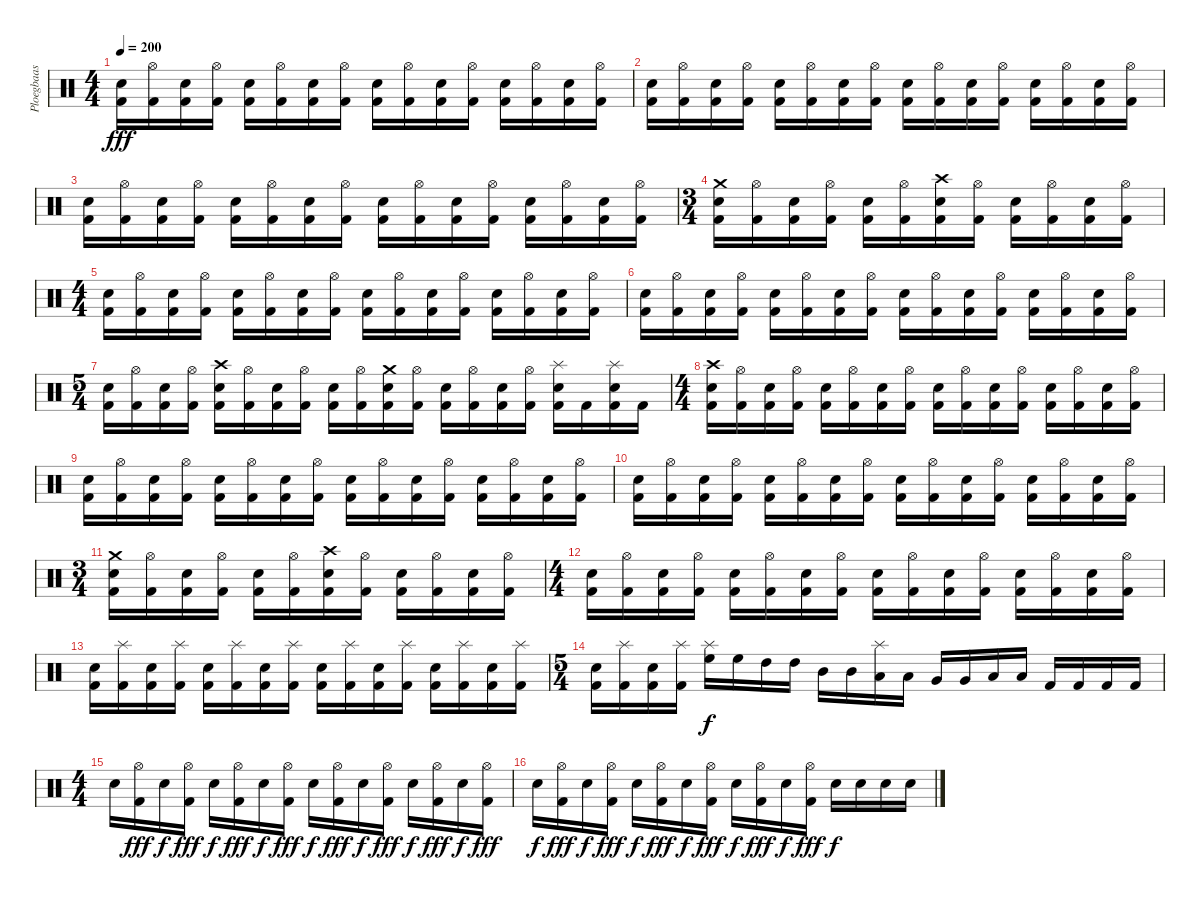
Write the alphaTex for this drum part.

\track ("Ploegbaas" "Ploegbaas") {instrument percussion}
\staff {score}
\articulation defaults
\ts (4 4)
\tempo 200
\clef neutral
\ks c
("Electric Snare (hit)" "Kick (hit) 2").16{dy fff} ("Hi-Hat (open)" "Kick (hit) 2").16 ("Electric Snare (hit)" "Kick (hit) 2").16 ("Hi-Hat (open)" "Kick (hit) 2").16 ("Electric Snare (hit)" "Kick (hit) 2").16 ("Hi-Hat (open)" "Kick (hit) 2").16 ("Electric Snare (hit)" "Kick (hit) 2").16 ("Hi-Hat (open)" "Kick (hit) 2").16 ("Electric Snare (hit)" "Kick (hit) 2").16 ("Hi-Hat (open)" "Kick (hit) 2").16 ("Electric Snare (hit)" "Kick (hit) 2").16 ("Hi-Hat (open)" "Kick (hit) 2").16 ("Electric Snare (hit)" "Kick (hit) 2").16 ("Hi-Hat (open)" "Kick (hit) 2").16 ("Electric Snare (hit)" "Kick (hit) 2").16 ("Hi-Hat (open)" "Kick (hit) 2").16 |
("Electric Snare (hit)" "Kick (hit) 2").16 ("Hi-Hat (open)" "Kick (hit) 2").16 ("Electric Snare (hit)" "Kick (hit) 2").16 ("Hi-Hat (open)" "Kick (hit) 2").16 ("Electric Snare (hit)" "Kick (hit) 2").16 ("Hi-Hat (open)" "Kick (hit) 2").16 ("Electric Snare (hit)" "Kick (hit) 2").16 ("Hi-Hat (open)" "Kick (hit) 2").16 ("Electric Snare (hit)" "Kick (hit) 2").16 ("Hi-Hat (open)" "Kick (hit) 2").16 ("Electric Snare (hit)" "Kick (hit) 2").16 ("Hi-Hat (open)" "Kick (hit) 2").16 ("Electric Snare (hit)" "Kick (hit) 2").16 ("Hi-Hat (open)" "Kick (hit) 2").16 ("Electric Snare (hit)" "Kick (hit) 2").16 ("Hi-Hat (open)" "Kick (hit) 2").16 |
("Electric Snare (hit)" "Kick (hit) 2").16 ("Hi-Hat (open)" "Kick (hit) 2").16 ("Electric Snare (hit)" "Kick (hit) 2").16 ("Hi-Hat (open)" "Kick (hit) 2").16 ("Electric Snare (hit)" "Kick (hit) 2").16 ("Hi-Hat (open)" "Kick (hit) 2").16 ("Electric Snare (hit)" "Kick (hit) 2").16 ("Hi-Hat (open)" "Kick (hit) 2").16 ("Electric Snare (hit)" "Kick (hit) 2").16 ("Hi-Hat (open)" "Kick (hit) 2").16 ("Electric Snare (hit)" "Kick (hit) 2").16 ("Hi-Hat (open)" "Kick (hit) 2").16 ("Electric Snare (hit)" "Kick (hit) 2").16 ("Hi-Hat (open)" "Kick (hit) 2").16 ("Electric Snare (hit)" "Kick (hit) 2").16 ("Hi-Hat (open)" "Kick (hit) 2").16 |
\ts (3 4)
("Crash medium (hit)" "Electric Snare (hit)" "Kick (hit) 2").16 ("Hi-Hat (open)" "Kick (hit) 2").16 ("Electric Snare (hit)" "Kick (hit) 2").16 ("Hi-Hat (open)" "Kick (hit) 2").16 ("Electric Snare (hit)" "Kick (hit) 2").16 ("Hi-Hat (open)" "Kick (hit) 2").16 ("Crash high (hit)" "Electric Snare (hit)" "Kick (hit) 2").16 ("Hi-Hat (open)" "Kick (hit) 2").16 ("Electric Snare (hit)" "Kick (hit) 2").16 ("Hi-Hat (open)" "Kick (hit) 2").16 ("Electric Snare (hit)" "Kick (hit) 2").16 ("Hi-Hat (open)" "Kick (hit) 2").16 |
\ts (4 4)
("Electric Snare (hit)" "Kick (hit) 2").16 ("Hi-Hat (open)" "Kick (hit) 2").16 ("Electric Snare (hit)" "Kick (hit) 2").16 ("Hi-Hat (open)" "Kick (hit) 2").16 ("Electric Snare (hit)" "Kick (hit) 2").16 ("Hi-Hat (open)" "Kick (hit) 2").16 ("Electric Snare (hit)" "Kick (hit) 2").16 ("Hi-Hat (open)" "Kick (hit) 2").16 ("Electric Snare (hit)" "Kick (hit) 2").16 ("Hi-Hat (open)" "Kick (hit) 2").16 ("Electric Snare (hit)" "Kick (hit) 2").16 ("Hi-Hat (open)" "Kick (hit) 2").16 ("Electric Snare (hit)" "Kick (hit) 2").16 ("Hi-Hat (open)" "Kick (hit) 2").16 ("Electric Snare (hit)" "Kick (hit) 2").16 ("Hi-Hat (open)" "Kick (hit) 2").16 |
("Electric Snare (hit)" "Kick (hit) 2").16 ("Hi-Hat (open)" "Kick (hit) 2").16 ("Electric Snare (hit)" "Kick (hit) 2").16 ("Hi-Hat (open)" "Kick (hit) 2").16 ("Electric Snare (hit)" "Kick (hit) 2").16 ("Hi-Hat (open)" "Kick (hit) 2").16 ("Electric Snare (hit)" "Kick (hit) 2").16 ("Hi-Hat (open)" "Kick (hit) 2").16 ("Electric Snare (hit)" "Kick (hit) 2").16 ("Hi-Hat (open)" "Kick (hit) 2").16 ("Electric Snare (hit)" "Kick (hit) 2").16 ("Hi-Hat (open)" "Kick (hit) 2").16 ("Electric Snare (hit)" "Kick (hit) 2").16 ("Hi-Hat (open)" "Kick (hit) 2").16 ("Electric Snare (hit)" "Kick (hit) 2").16 ("Hi-Hat (open)" "Kick (hit) 2").16 |
\ts (5 4)
("Electric Snare (hit)" "Kick (hit) 2").16 ("Hi-Hat (open)" "Kick (hit) 2").16 ("Electric Snare (hit)" "Kick (hit) 2").16 ("Hi-Hat (open)" "Kick (hit) 2").16 ("Crash high (hit)" "Electric Snare (hit)" "Kick (hit) 2").16 ("Hi-Hat (open)" "Kick (hit) 2").16 ("Electric Snare (hit)" "Kick (hit) 2").16 ("Hi-Hat (open)" "Kick (hit) 2").16 ("Electric Snare (hit)" "Kick (hit) 2").16 ("Hi-Hat (open)" "Kick (hit) 2").16 ("Crash medium (hit)" "Electric Snare (hit)" "Kick (hit) 2").16 ("Hi-Hat (open)" "Kick (hit) 2").16 ("Electric Snare (hit)" "Kick (hit) 2").16 ("Hi-Hat (open)" "Kick (hit) 2").16 ("Electric Snare (hit)" "Kick (hit) 2").16 ("Hi-Hat (open)" "Kick (hit) 2").16 ("Splash (hit)" "Electric Snare (hit)" "Kick (hit) 2").16 "Kick (hit) 2".16 ("Splash (hit)" "Electric Snare (hit)" "Kick (hit) 2").16 "Kick (hit) 2".16 |
\ts (4 4)
("Crash high (hit)" "Electric Snare (hit)" "Kick (hit) 2").16 ("Hi-Hat (open)" "Kick (hit) 2").16 ("Electric Snare (hit)" "Kick (hit) 2").16 ("Hi-Hat (open)" "Kick (hit) 2").16 ("Electric Snare (hit)" "Kick (hit) 2").16 ("Hi-Hat (open)" "Kick (hit) 2").16 ("Electric Snare (hit)" "Kick (hit) 2").16 ("Hi-Hat (open)" "Kick (hit) 2").16 ("Electric Snare (hit)" "Kick (hit) 2").16 ("Hi-Hat (open)" "Kick (hit) 2").16 ("Electric Snare (hit)" "Kick (hit) 2").16 ("Hi-Hat (open)" "Kick (hit) 2").16 ("Electric Snare (hit)" "Kick (hit) 2").16 ("Hi-Hat (open)" "Kick (hit) 2").16 ("Electric Snare (hit)" "Kick (hit) 2").16 ("Hi-Hat (open)" "Kick (hit) 2").16 |
("Electric Snare (hit)" "Kick (hit) 2").16 ("Hi-Hat (open)" "Kick (hit) 2").16 ("Electric Snare (hit)" "Kick (hit) 2").16 ("Hi-Hat (open)" "Kick (hit) 2").16 ("Electric Snare (hit)" "Kick (hit) 2").16 ("Hi-Hat (open)" "Kick (hit) 2").16 ("Electric Snare (hit)" "Kick (hit) 2").16 ("Hi-Hat (open)" "Kick (hit) 2").16 ("Electric Snare (hit)" "Kick (hit) 2").16 ("Hi-Hat (open)" "Kick (hit) 2").16 ("Electric Snare (hit)" "Kick (hit) 2").16 ("Hi-Hat (open)" "Kick (hit) 2").16 ("Electric Snare (hit)" "Kick (hit) 2").16 ("Hi-Hat (open)" "Kick (hit) 2").16 ("Electric Snare (hit)" "Kick (hit) 2").16 ("Hi-Hat (open)" "Kick (hit) 2").16 |
("Electric Snare (hit)" "Kick (hit) 2").16 ("Hi-Hat (open)" "Kick (hit) 2").16 ("Electric Snare (hit)" "Kick (hit) 2").16 ("Hi-Hat (open)" "Kick (hit) 2").16 ("Electric Snare (hit)" "Kick (hit) 2").16 ("Hi-Hat (open)" "Kick (hit) 2").16 ("Electric Snare (hit)" "Kick (hit) 2").16 ("Hi-Hat (open)" "Kick (hit) 2").16 ("Electric Snare (hit)" "Kick (hit) 2").16 ("Hi-Hat (open)" "Kick (hit) 2").16 ("Electric Snare (hit)" "Kick (hit) 2").16 ("Hi-Hat (open)" "Kick (hit) 2").16 ("Electric Snare (hit)" "Kick (hit) 2").16 ("Hi-Hat (open)" "Kick (hit) 2").16 ("Electric Snare (hit)" "Kick (hit) 2").16 ("Hi-Hat (open)" "Kick (hit) 2").16 |
\ts (3 4)
("Crash medium (hit)" "Electric Snare (hit)" "Kick (hit) 2").16 ("Hi-Hat (open)" "Kick (hit) 2").16 ("Electric Snare (hit)" "Kick (hit) 2").16 ("Hi-Hat (open)" "Kick (hit) 2").16 ("Electric Snare (hit)" "Kick (hit) 2").16 ("Hi-Hat (open)" "Kick (hit) 2").16 ("Crash high (hit)" "Electric Snare (hit)" "Kick (hit) 2").16 ("Hi-Hat (open)" "Kick (hit) 2").16 ("Electric Snare (hit)" "Kick (hit) 2").16 ("Hi-Hat (open)" "Kick (hit) 2").16 ("Electric Snare (hit)" "Kick (hit) 2").16 ("Hi-Hat (open)" "Kick (hit) 2").16 |
\ts (4 4)
("Electric Snare (hit)" "Kick (hit) 2").16 ("Hi-Hat (open)" "Kick (hit) 2").16 ("Electric Snare (hit)" "Kick (hit) 2").16 ("Hi-Hat (open)" "Kick (hit) 2").16 ("Electric Snare (hit)" "Kick (hit) 2").16 ("Hi-Hat (open)" "Kick (hit) 2").16 ("Electric Snare (hit)" "Kick (hit) 2").16 ("Hi-Hat (open)" "Kick (hit) 2").16 ("Electric Snare (hit)" "Kick (hit) 2").16 ("Hi-Hat (open)" "Kick (hit) 2").16 ("Electric Snare (hit)" "Kick (hit) 2").16 ("Hi-Hat (open)" "Kick (hit) 2").16 ("Electric Snare (hit)" "Kick (hit) 2").16 ("Hi-Hat (open)" "Kick (hit) 2").16 ("Electric Snare (hit)" "Kick (hit) 2").16 ("Hi-Hat (open)" "Kick (hit) 2").16 |
("Electric Snare (hit)" "Kick (hit) 2").16 ("Splash (hit)" "Kick (hit) 2").16 ("Electric Snare (hit)" "Kick (hit) 2").16 ("Splash (hit)" "Kick (hit) 2").16 ("Electric Snare (hit)" "Kick (hit) 2").16 ("Splash (hit)" "Kick (hit) 2").16 ("Electric Snare (hit)" "Kick (hit) 2").16 ("Splash (hit)" "Kick (hit) 2").16 ("Electric Snare (hit)" "Kick (hit) 2").16 ("Splash (hit)" "Kick (hit) 2").16 ("Electric Snare (hit)" "Kick (hit) 2").16 ("Splash (hit)" "Kick (hit) 2").16 ("Electric Snare (hit)" "Kick (hit) 2").16 ("Splash (hit)" "Kick (hit) 2").16 ("Electric Snare (hit)" "Kick (hit) 2").16 ("Splash (hit)" "Kick (hit) 2").16 |
\ts (5 4)
("Electric Snare (hit)" "Kick (hit) 2").16 ("Splash (hit)" "Kick (hit) 2").16 ("Electric Snare (hit)" "Kick (hit) 2").16 ("Splash (hit)" "Kick (hit) 2").16 ("Splash (hit)" "High Floor Tom (hit)").16{dy f} "High Floor Tom (hit)".16 "High Tom (hit)".16 "High Tom (hit)".16 "Mid Tom (hit)".16 "Mid Tom (hit)".16 ("Splash (hit)" "Low Tom (hit)").16 "Low Tom (hit)".16 "Very Low Tom (hit)".16 "Very Low Tom (hit)".16 "Low Floor Tom (hit)".16 "Low Floor Tom (hit)".16 "Kick (hit) 2".16 "Kick (hit) 2".16 "Kick (hit) 2".16 "Kick (hit) 2".16 |
\ts (4 4)
"Electric Snare (hit)".16 ("Hi-Hat (open)" "Kick (hit) 2").16{dy fff} "Electric Snare (hit)".16{dy f} ("Hi-Hat (open)" "Kick (hit) 2").16{dy fff} "Electric Snare (hit)".16{dy f} ("Hi-Hat (open)" "Kick (hit) 2").16{dy fff} "Electric Snare (hit)".16{dy f} ("Hi-Hat (open)" "Kick (hit) 2").16{dy fff} "Electric Snare (hit)".16{dy f} ("Hi-Hat (open)" "Kick (hit) 2").16{dy fff} "Electric Snare (hit)".16{dy f} ("Hi-Hat (open)" "Kick (hit) 2").16{dy fff} "Electric Snare (hit)".16{dy f} ("Hi-Hat (open)" "Kick (hit) 2").16{dy fff} "Electric Snare (hit)".16{dy f} ("Hi-Hat (open)" "Kick (hit) 2").16{dy fff} |
"Electric Snare (hit)".16{dy f} ("Hi-Hat (open)" "Kick (hit) 2").16{dy fff} "Electric Snare (hit)".16{dy f} ("Hi-Hat (open)" "Kick (hit) 2").16{dy fff} "Electric Snare (hit)".16{dy f} ("Hi-Hat (open)" "Kick (hit) 2").16{dy fff} "Electric Snare (hit)".16{dy f} ("Hi-Hat (open)" "Kick (hit) 2").16{dy fff} "Electric Snare (hit)".16{dy f} ("Hi-Hat (open)" "Kick (hit) 2").16{dy fff} "Electric Snare (hit)".16{dy f} ("Hi-Hat (open)" "Kick (hit) 2").16{dy fff} "Electric Snare (hit)".16{dy f} "Electric Snare (hit)".16 "Electric Snare (hit)".16 "Electric Snare (hit)".16
